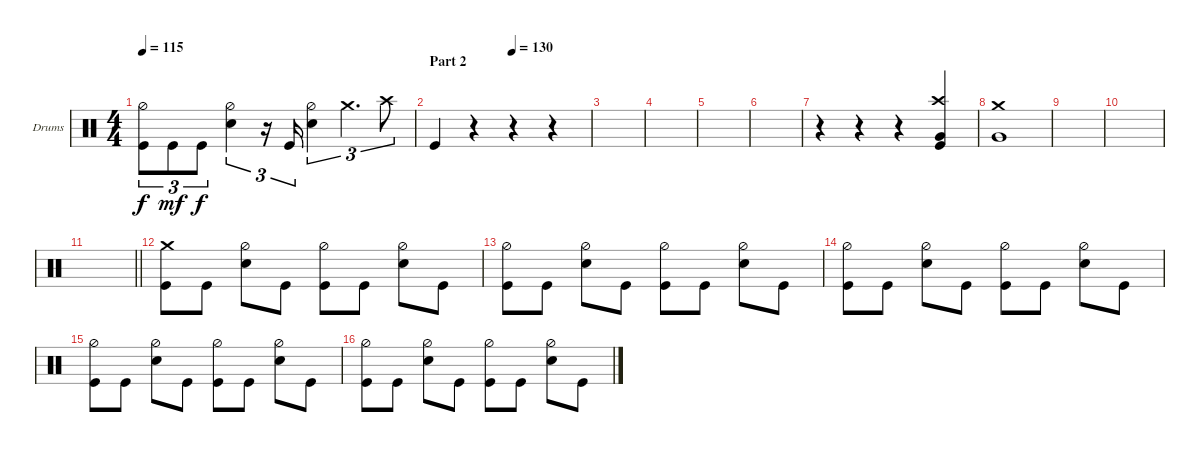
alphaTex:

\defaultSystemsLayout 4
\bracketExtendMode groupsimilarinstruments
\firstSystemTrackNameOrientation horizontal
\otherSystemsTrackNameOrientation horizontal
\track ("Drumkit" "Drums") {instrument percussion}
\staff {score}
\articulation defaults
\ts (4 4)
\tempo 115
\clef neutral
\ks aminor
("Kick (hit)" "Hi-Hat (half)").8{tu (3 2) dy f} "Kick (hit)".8{tu (3 2) dy mf} "Kick (hit)".8{tu (3 2) dy f} ("Snare (hit) 2" "Hi-Hat (half)").4{tu (3 2)} r.16{tu (3 2)} "Kick (hit)".16{tu (3 2)} ("Snare (hit) 2" "Hi-Hat (half)").4{tu (3 2)} "Crash medium (hit)".4{d tu (3 2)} "Crash high (hit)".8{tu (3 2)} |
\section ("" "Part 2")
\tempo (130 0.5)
"Kick (hit)".4 r.4 r.4 r.4 |
|
|
|
|
r.4 r.4 r.4 ("Very Low Tom (hit)" "Kick (hit)" "Crash high (hit)").4 |
("Very Low Tom (hit)" "Crash medium (hit)").1 |
|
|
\barLineRight lightlight
|
("Kick (hit)" "Crash medium (hit)").8 "Kick (hit)".8 ("Snare (hit) 2" "Hi-Hat (half)").8 "Kick (hit)".8 ("Kick (hit)" "Hi-Hat (half)").8 "Kick (hit)".8 ("Snare (hit) 2" "Hi-Hat (half)").8 "Kick (hit)".8 |
("Kick (hit)" "Hi-Hat (half)").8 "Kick (hit)".8 ("Snare (hit) 2" "Hi-Hat (half)").8 "Kick (hit)".8 ("Kick (hit)" "Hi-Hat (half)").8 "Kick (hit)".8 ("Snare (hit) 2" "Hi-Hat (half)").8 "Kick (hit)".8 |
("Kick (hit)" "Hi-Hat (half)").8 "Kick (hit)".8 ("Snare (hit) 2" "Hi-Hat (half)").8 "Kick (hit)".8 ("Kick (hit)" "Hi-Hat (half)").8 "Kick (hit)".8 ("Snare (hit) 2" "Hi-Hat (half)").8 "Kick (hit)".8 |
("Kick (hit)" "Hi-Hat (half)").8 "Kick (hit)".8 ("Snare (hit) 2" "Hi-Hat (half)").8 "Kick (hit)".8 ("Kick (hit)" "Hi-Hat (half)").8 "Kick (hit)".8 ("Snare (hit) 2" "Hi-Hat (half)").8 "Kick (hit)".8 |
("Kick (hit)" "Hi-Hat (half)").8 "Kick (hit)".8 ("Snare (hit) 2" "Hi-Hat (half)").8 "Kick (hit)".8 ("Kick (hit)" "Hi-Hat (half)").8 "Kick (hit)".8 ("Snare (hit) 2" "Hi-Hat (half)").8 "Kick (hit)".8
